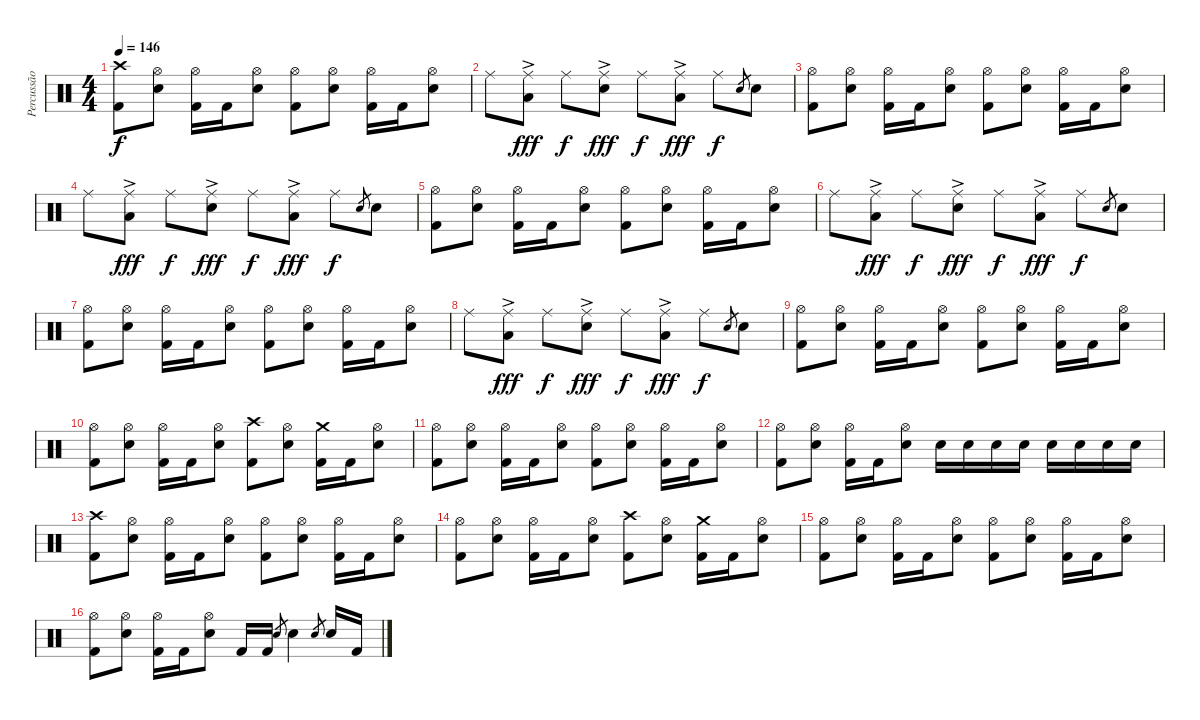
\track ("Percussão" "Percussão") {instrument percussion}
\staff {score}
\articulation defaults
\ts (4 4)
\section ("" "")
\tempo 146
\clef neutral
\ks c
("Crash high (hit)" "Kick (hit) 2").8{dy f} ("Hi-Hat (open)" "Snare (hit) 2").8 ("Hi-Hat (open)" "Kick (hit) 2").16 "Kick (hit) 2".16 ("Hi-Hat (open)" "Snare (hit) 2").8 ("Hi-Hat (open)" "Kick (hit) 2").8 ("Hi-Hat (open)" "Snare (hit) 2").8 ("Hi-Hat (open)" "Kick (hit) 2").16 "Kick (hit) 2".16 ("Hi-Hat (open)" "Snare (hit) 2").8 |
"Ride (middle)".8 ("Ride (middle)"{ac} "Low Tom (hit)").8{dy fff} "Ride (middle)".8{dy f} ("Ride (middle)"{ac} "Snare (hit) 2").8{dy fff} "Ride (middle)".8{dy f} ("Ride (middle)"{ac} "Low Tom (hit)").8{dy fff} "Ride (middle)".8{dy f} "Snare (hit) 2".8{gr} "Snare (hit) 2".8 |
("Hi-Hat (open)" "Kick (hit) 2").8 ("Hi-Hat (open)" "Snare (hit) 2").8 ("Hi-Hat (open)" "Kick (hit) 2").16 "Kick (hit) 2".16 ("Hi-Hat (open)" "Snare (hit) 2").8 ("Hi-Hat (open)" "Kick (hit) 2").8 ("Hi-Hat (open)" "Snare (hit) 2").8 ("Hi-Hat (open)" "Kick (hit) 2").16 "Kick (hit) 2".16 ("Hi-Hat (open)" "Snare (hit) 2").8 |
"Ride (middle)".8 ("Ride (middle)"{ac} "Low Tom (hit)").8{dy fff} "Ride (middle)".8{dy f} ("Ride (middle)"{ac} "Snare (hit) 2").8{dy fff} "Ride (middle)".8{dy f} ("Ride (middle)"{ac} "Low Tom (hit)").8{dy fff} "Ride (middle)".8{dy f} "Snare (hit) 2".8{gr} "Snare (hit) 2".8 |
("Hi-Hat (open)" "Kick (hit) 2").8 ("Hi-Hat (open)" "Snare (hit) 2").8 ("Hi-Hat (open)" "Kick (hit) 2").16 "Kick (hit) 2".16 ("Hi-Hat (open)" "Snare (hit) 2").8 ("Hi-Hat (open)" "Kick (hit) 2").8 ("Hi-Hat (open)" "Snare (hit) 2").8 ("Hi-Hat (open)" "Kick (hit) 2").16 "Kick (hit) 2".16 ("Hi-Hat (open)" "Snare (hit) 2").8 |
"Ride (middle)".8 ("Ride (middle)"{ac} "Low Tom (hit)").8{dy fff} "Ride (middle)".8{dy f} ("Ride (middle)"{ac} "Snare (hit) 2").8{dy fff} "Ride (middle)".8{dy f} ("Ride (middle)"{ac} "Low Tom (hit)").8{dy fff} "Ride (middle)".8{dy f} "Snare (hit) 2".8{gr} "Snare (hit) 2".8 |
("Hi-Hat (open)" "Kick (hit) 2").8 ("Hi-Hat (open)" "Snare (hit) 2").8 ("Hi-Hat (open)" "Kick (hit) 2").16 "Kick (hit) 2".16 ("Hi-Hat (open)" "Snare (hit) 2").8 ("Hi-Hat (open)" "Kick (hit) 2").8 ("Hi-Hat (open)" "Snare (hit) 2").8 ("Hi-Hat (open)" "Kick (hit) 2").16 "Kick (hit) 2".16 ("Hi-Hat (open)" "Snare (hit) 2").8 |
"Ride (middle)".8 ("Ride (middle)"{ac} "Low Tom (hit)").8{dy fff} "Ride (middle)".8{dy f} ("Ride (middle)"{ac} "Snare (hit) 2").8{dy fff} "Ride (middle)".8{dy f} ("Ride (middle)"{ac} "Low Tom (hit)").8{dy fff} "Ride (middle)".8{dy f} "Snare (hit) 2".8{gr} "Snare (hit) 2".8 |
("Hi-Hat (open)" "Kick (hit) 2").8 ("Hi-Hat (open)" "Snare (hit) 2").8 ("Hi-Hat (open)" "Kick (hit) 2").16 "Kick (hit) 2".16 ("Hi-Hat (open)" "Snare (hit) 2").8 ("Hi-Hat (open)" "Kick (hit) 2").8 ("Hi-Hat (open)" "Snare (hit) 2").8 ("Hi-Hat (open)" "Kick (hit) 2").16 "Kick (hit) 2".16 ("Hi-Hat (open)" "Snare (hit) 2").8 |
("Hi-Hat (open)" "Kick (hit) 2").8 ("Hi-Hat (open)" "Snare (hit) 2").8 ("Hi-Hat (open)" "Kick (hit) 2").16 "Kick (hit) 2".16 ("Hi-Hat (open)" "Snare (hit) 2").8 ("Crash high (hit)" "Kick (hit) 2").8 ("Hi-Hat (open)" "Snare (hit) 2").8 ("Crash medium (hit)" "Kick (hit) 2").16 "Kick (hit) 2".16 ("Hi-Hat (open)" "Snare (hit) 2").8 |
("Hi-Hat (open)" "Kick (hit) 2").8 ("Hi-Hat (open)" "Snare (hit) 2").8 ("Hi-Hat (open)" "Kick (hit) 2").16 "Kick (hit) 2".16 ("Hi-Hat (open)" "Snare (hit) 2").8 ("Hi-Hat (open)" "Kick (hit) 2").8 ("Hi-Hat (open)" "Snare (hit) 2").8 ("Hi-Hat (open)" "Kick (hit) 2").16 "Kick (hit) 2".16 ("Hi-Hat (open)" "Snare (hit) 2").8 |
("Hi-Hat (open)" "Kick (hit) 2").8 ("Hi-Hat (open)" "Snare (hit) 2").8 ("Hi-Hat (open)" "Kick (hit) 2").16 "Kick (hit) 2".16 ("Hi-Hat (open)" "Snare (hit) 2").8 "Snare (hit) 2".16 "Snare (hit) 2".16 "Snare (hit) 2".16 "Snare (hit) 2".16 "Snare (hit) 2".16 "Snare (hit) 2".16 "Snare (hit) 2".16 "Snare (hit) 2".16 |
("Crash high (hit)" "Kick (hit) 2").8 ("Hi-Hat (open)" "Snare (hit) 2").8 ("Hi-Hat (open)" "Kick (hit) 2").16 "Kick (hit) 2".16 ("Hi-Hat (open)" "Snare (hit) 2").8 ("Hi-Hat (open)" "Kick (hit) 2").8 ("Hi-Hat (open)" "Snare (hit) 2").8 ("Hi-Hat (open)" "Kick (hit) 2").16 "Kick (hit) 2".16 ("Hi-Hat (open)" "Snare (hit) 2").8 |
("Hi-Hat (open)" "Kick (hit) 2").8 ("Hi-Hat (open)" "Snare (hit) 2").8 ("Hi-Hat (open)" "Kick (hit) 2").16 "Kick (hit) 2".16 ("Hi-Hat (open)" "Snare (hit) 2").8 ("Crash high (hit)" "Kick (hit) 2").8 ("Hi-Hat (open)" "Snare (hit) 2").8 ("Crash medium (hit)" "Kick (hit) 2").16 "Kick (hit) 2".16 ("Hi-Hat (open)" "Snare (hit) 2").8 |
("Hi-Hat (open)" "Kick (hit) 2").8 ("Hi-Hat (open)" "Snare (hit) 2").8 ("Hi-Hat (open)" "Kick (hit) 2").16 "Kick (hit) 2".16 ("Hi-Hat (open)" "Snare (hit) 2").8 ("Hi-Hat (open)" "Kick (hit) 2").8 ("Hi-Hat (open)" "Snare (hit) 2").8 ("Hi-Hat (open)" "Kick (hit) 2").16 "Kick (hit) 2".16 ("Hi-Hat (open)" "Snare (hit) 2").8 |
("Hi-Hat (open)" "Kick (hit) 2").8 ("Hi-Hat (open)" "Snare (hit) 2").8 ("Hi-Hat (open)" "Kick (hit) 2").16 "Kick (hit) 2".16 ("Hi-Hat (open)" "Snare (hit) 2").8 "Kick (hit) 2".16 "Kick (hit) 2".16 "Snare (hit) 2".8{gr} "Snare (hit) 2".4 "Snare (hit) 2".8{gr} "Snare (hit) 2".16 "Kick (hit) 2".16
